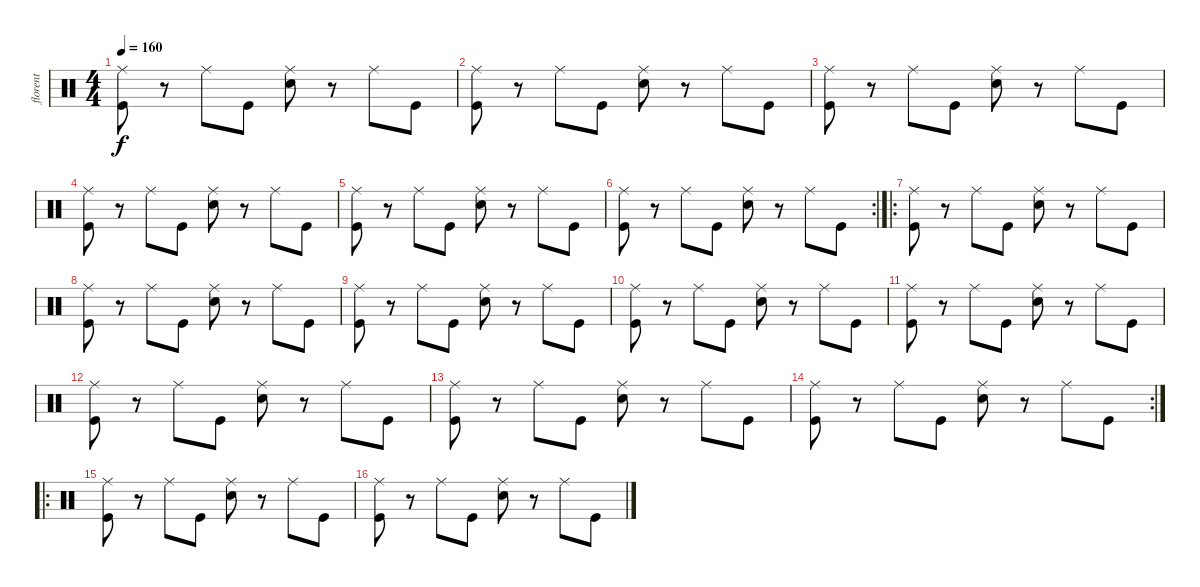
\track ("florent" "florent") {instrument percussion}
\staff {score}
\articulation defaults
\ts (4 4)
\tempo 160
\clef neutral
\ks c
("Ride (middle)" "Kick (hit)").8{dy f} r.8 "Ride (middle)".8 "Kick (hit)".8 ("Ride (middle)" "Snare (hit) 2").8 r.8 "Ride (middle)".8 "Kick (hit)".8 |
("Ride (middle)" "Kick (hit)").8 r.8 "Ride (middle)".8 "Kick (hit)".8 ("Ride (middle)" "Snare (hit) 2").8 r.8 "Ride (middle)".8 "Kick (hit)".8 |
("Ride (middle)" "Kick (hit)").8 r.8 "Ride (middle)".8 "Kick (hit)".8 ("Ride (middle)" "Snare (hit) 2").8 r.8 "Ride (middle)".8 "Kick (hit)".8 |
("Ride (middle)" "Kick (hit)").8 r.8 "Ride (middle)".8 "Kick (hit)".8 ("Ride (middle)" "Snare (hit) 2").8 r.8 "Ride (middle)".8 "Kick (hit)".8 |
("Ride (middle)" "Kick (hit)").8 r.8 "Ride (middle)".8 "Kick (hit)".8 ("Ride (middle)" "Snare (hit) 2").8 r.8 "Ride (middle)".8 "Kick (hit)".8 |
\rc 2
("Ride (middle)" "Kick (hit)").8 r.8 "Ride (middle)".8 "Kick (hit)".8 ("Ride (middle)" "Snare (hit) 2").8 r.8 "Ride (middle)".8 "Kick (hit)".8 |
\ro
("Ride (middle)" "Kick (hit)").8 r.8 "Ride (middle)".8 "Kick (hit)".8 ("Ride (middle)" "Snare (hit) 2").8 r.8 "Ride (middle)".8 "Kick (hit)".8 |
("Ride (middle)" "Kick (hit)").8 r.8 "Ride (middle)".8 "Kick (hit)".8 ("Ride (middle)" "Snare (hit) 2").8 r.8 "Ride (middle)".8 "Kick (hit)".8 |
("Ride (middle)" "Kick (hit)").8 r.8 "Ride (middle)".8 "Kick (hit)".8 ("Ride (middle)" "Snare (hit) 2").8 r.8 "Ride (middle)".8 "Kick (hit)".8 |
("Ride (middle)" "Kick (hit)").8 r.8 "Ride (middle)".8 "Kick (hit)".8 ("Ride (middle)" "Snare (hit) 2").8 r.8 "Ride (middle)".8 "Kick (hit)".8 |
("Ride (middle)" "Kick (hit)").8 r.8 "Ride (middle)".8 "Kick (hit)".8 ("Ride (middle)" "Snare (hit) 2").8 r.8 "Ride (middle)".8 "Kick (hit)".8 |
("Ride (middle)" "Kick (hit)").8 r.8 "Ride (middle)".8 "Kick (hit)".8 ("Ride (middle)" "Snare (hit) 2").8 r.8 "Ride (middle)".8 "Kick (hit)".8 |
("Ride (middle)" "Kick (hit)").8 r.8 "Ride (middle)".8 "Kick (hit)".8 ("Ride (middle)" "Snare (hit) 2").8 r.8 "Ride (middle)".8 "Kick (hit)".8 |
\rc 2
("Ride (middle)" "Kick (hit)").8 r.8 "Ride (middle)".8 "Kick (hit)".8 ("Ride (middle)" "Snare (hit) 2").8 r.8 "Ride (middle)".8 "Kick (hit)".8 |
\ro
("Ride (middle)" "Kick (hit)").8 r.8 "Ride (middle)".8 "Kick (hit)".8 ("Ride (middle)" "Snare (hit) 2").8 r.8 "Ride (middle)".8 "Kick (hit)".8 |
("Ride (middle)" "Kick (hit)").8 r.8 "Ride (middle)".8 "Kick (hit)".8 ("Ride (middle)" "Snare (hit) 2").8 r.8 "Ride (middle)".8 "Kick (hit)".8
